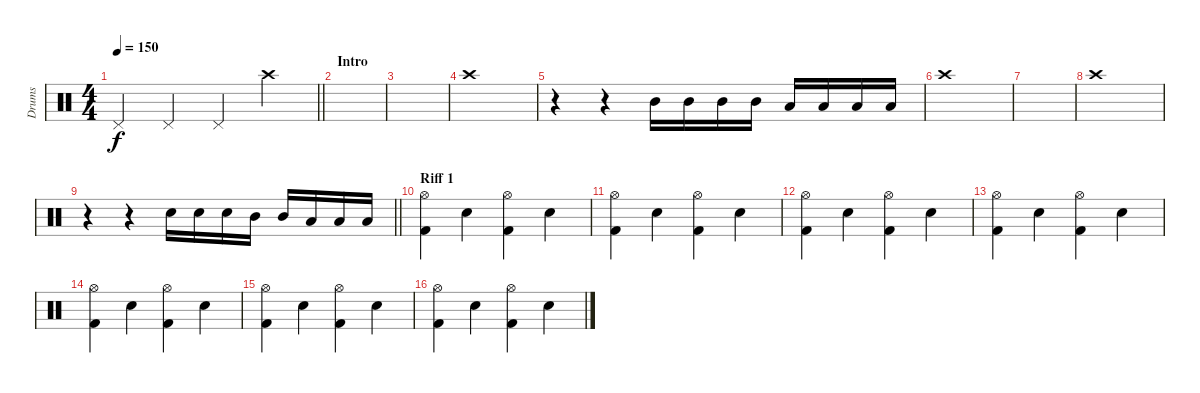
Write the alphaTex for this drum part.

\track ("Drums" "Drums") {instrument percussion}
\staff
\articulation defaults
\ts (4 4)
\tempo 150
\clef neutral
\barLineRight lightlight
\ks c "Pedal Hi-Hat (hit)".4{dy f} "Pedal Hi-Hat (hit)".4 "Pedal Hi-Hat (hit)".4 "Crash high (hit)".4
|
\section ("" "Intro")
|
|
"Crash high (hit)".1 |
r.4 r.4 "Mid Tom (hit)".16 "Mid Tom (hit)".16 "Mid Tom (hit)".16 "Mid Tom (hit)".16 "Low Tom (hit)".16 "Low Tom (hit)".16 "Low Floor Tom (hit)".16 "Low Floor Tom (hit)".16 |
"Crash high (hit)".1 |
|
"Crash high (hit)".1 |
\barLineRight lightlight
r.4 r.4 "Snare (hit) 2".16 "Snare (hit) 2".16 "Snare (hit) 2".16 "Mid Tom (hit)".16 "Mid Tom (hit)".16 "Low Tom (hit)".16 "Low Tom (hit)".16 "Low Floor Tom (hit)".16 |
\section ("" "Riff 1")
("Hi-Hat (open)" "Kick (hit) 2").4 "Snare (hit) 2".4 ("Hi-Hat (open)" "Kick (hit) 2").4 "Snare (hit) 2".4 |
("Hi-Hat (open)" "Kick (hit) 2").4 "Snare (hit) 2".4 ("Hi-Hat (open)" "Kick (hit) 2").4 "Snare (hit) 2".4 |
("Hi-Hat (open)" "Kick (hit) 2").4 "Snare (hit) 2".4 ("Hi-Hat (open)" "Kick (hit) 2").4 "Snare (hit) 2".4 |
("Hi-Hat (open)" "Kick (hit) 2").4 "Snare (hit) 2".4 ("Hi-Hat (open)" "Kick (hit) 2").4 "Snare (hit) 2".4 |
("Hi-Hat (open)" "Kick (hit) 2").4 "Snare (hit) 2".4 ("Hi-Hat (open)" "Kick (hit) 2").4 "Snare (hit) 2".4 |
("Hi-Hat (open)" "Kick (hit) 2").4 "Snare (hit) 2".4 ("Hi-Hat (open)" "Kick (hit) 2").4 "Snare (hit) 2".4 |
("Hi-Hat (open)" "Kick (hit) 2").4 "Snare (hit) 2".4 ("Hi-Hat (open)" "Kick (hit) 2").4 "Snare (hit) 2".4
